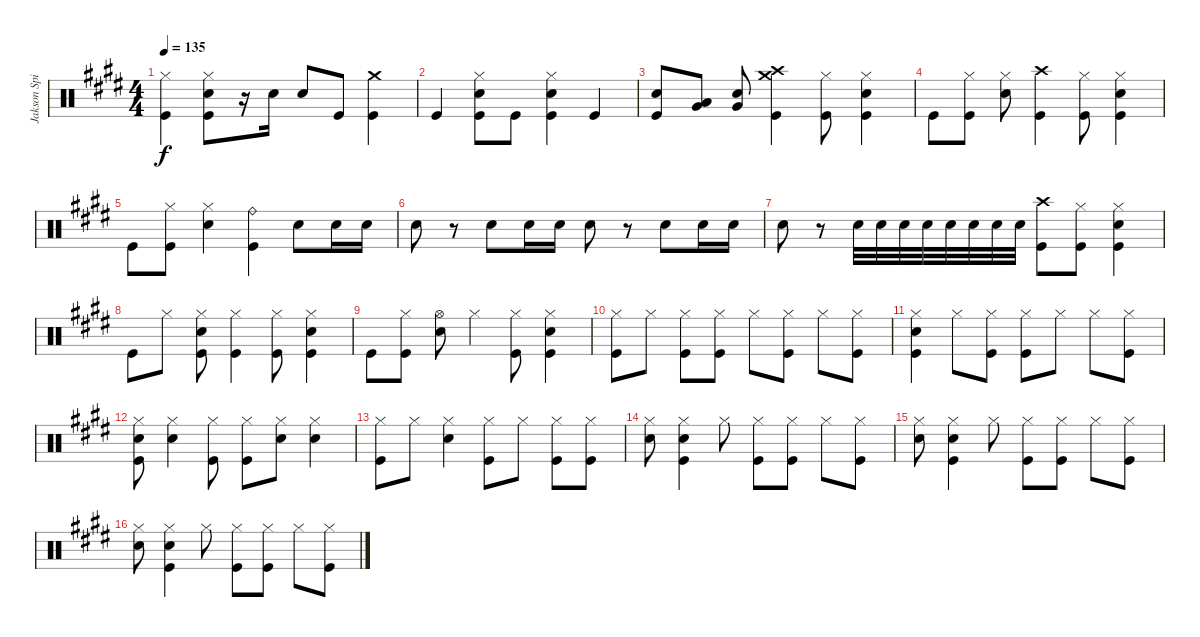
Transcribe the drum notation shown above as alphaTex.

\track ("Jakson Spires Drums" "Jakson Spi") {instrument percussion}
\staff {score}
\articulation defaults
\ts (4 4)
\tempo 135
\clef neutral
\ks e
("Hi-Hat (closed)" "Kick (hit)").4{dy f} ("Hi-Hat (closed)" "Snare (hit) 2" "Kick (hit)").8 r.16 "Snare (hit) 2".16 "Snare (hit) 2".8 "Kick (hit)".8 ("Crash medium (hit)" "Kick (hit)").4 |
"Kick (hit)".4 ("Hi-Hat (closed)" "Snare (hit) 2" "Kick (hit)").8 "Kick (hit)".8 ("Hi-Hat (closed)" "Snare (hit) 2" "Kick (hit)").4 "Kick (hit)".4 |
("Snare (hit) 2" "Kick (hit)").8 ("Low Tom (hit)" "Very Low Tom (hit)").8 ("Snare (hit) 2" "Very Low Tom (hit)").8 ("Crash high (hit)" "Crash medium (hit)" "Kick (hit)").4 ("Hi-Hat (closed)" "Kick (hit)").8 ("Hi-Hat (closed)" "Snare (hit) 2" "Kick (hit)").4 |
"Kick (hit)".8 ("Hi-Hat (closed)" "Kick (hit)").8 ("Hi-Hat (closed)" "Snare (hit) 2").8 ("Crash high (hit)" "Kick (hit)").4 ("Hi-Hat (closed)" "Kick (hit)").8 ("Hi-Hat (closed)" "Snare (hit) 2" "Kick (hit)").4 |
"Kick (hit)".8 ("Hi-Hat (closed)" "Kick (hit)").8 ("Hi-Hat (closed)" "Snare (hit) 2").4 ("Ride (bell)" "Kick (hit)").4 "Snare (hit) 2".8 "Snare (hit) 2".16 "Snare (hit) 2".16 |
"Snare (hit) 2".8 r.8 "Snare (hit) 2".8 "Snare (hit) 2".16 "Snare (hit) 2".16 "Snare (hit) 2".8 r.8 "Snare (hit) 2".8 "Snare (hit) 2".16 "Snare (hit) 2".16 |
"Snare (hit) 2".8 r.8 "Snare (hit) 2".32 "Snare (hit) 2".32 "Snare (hit) 2".32 "Snare (hit) 2".32 "Snare (hit) 2".32 "Snare (hit) 2".32 "Snare (hit) 2".32 "Snare (hit) 2".32 ("Crash high (hit)" "Kick (hit)").8 ("Hi-Hat (closed)" "Kick (hit)").8 ("Hi-Hat (closed)" "Snare (hit) 2" "Kick (hit)").4 |
"Kick (hit)".8 "Hi-Hat (closed)".8 ("Hi-Hat (closed)" "Snare (hit) 2" "Kick (hit)").8 ("Hi-Hat (closed)" "Kick (hit)").4 ("Hi-Hat (closed)" "Kick (hit)").8 ("Hi-Hat (closed)" "Snare (hit) 2" "Kick (hit)").4 |
"Kick (hit)".8 ("Hi-Hat (closed)" "Kick (hit)").8 ("Hi-Hat (open)" "Snare (hit) 2").8 "Hi-Hat (closed)".4 ("Hi-Hat (closed)" "Kick (hit)").8 ("Hi-Hat (closed)" "Snare (hit) 2" "Kick (hit)").4 |
("Hi-Hat (closed)" "Kick (hit)").8 "Hi-Hat (closed)".8 ("Hi-Hat (closed)" "Kick (hit)").8 ("Hi-Hat (closed)" "Kick (hit)").8 "Hi-Hat (closed)".8 ("Hi-Hat (closed)" "Kick (hit)").8 "Hi-Hat (closed)".8 ("Hi-Hat (closed)" "Kick (hit)").8 |
("Hi-Hat (closed)" "Snare (hit) 2" "Kick (hit)").4 "Hi-Hat (closed)".8 ("Hi-Hat (closed)" "Kick (hit)").8 ("Hi-Hat (closed)" "Kick (hit)").8 "Hi-Hat (closed)".8 "Hi-Hat (closed)".8 ("Hi-Hat (closed)" "Kick (hit)").8 |
("Hi-Hat (closed)" "Snare (hit) 2" "Kick (hit)").8 ("Hi-Hat (closed)" "Snare (hit) 2").4 ("Hi-Hat (closed)" "Kick (hit)").8 ("Hi-Hat (closed)" "Kick (hit)").8 ("Hi-Hat (closed)" "Snare (hit) 2").8 ("Hi-Hat (closed)" "Snare (hit) 2").4 |
("Hi-Hat (closed)" "Kick (hit)").8 "Hi-Hat (closed)".8 ("Hi-Hat (closed)" "Snare (hit) 2").4 ("Hi-Hat (closed)" "Kick (hit)").8 "Hi-Hat (closed)".8 ("Hi-Hat (closed)" "Kick (hit)").8 ("Hi-Hat (closed)" "Kick (hit)").8 |
("Hi-Hat (closed)" "Snare (hit) 2").8 ("Hi-Hat (closed)" "Snare (hit) 2" "Kick (hit)").4 "Hi-Hat (closed)".8 ("Hi-Hat (closed)" "Kick (hit)").8 ("Hi-Hat (closed)" "Kick (hit)").8 "Hi-Hat (closed)".8 ("Hi-Hat (closed)" "Kick (hit)").8 |
("Hi-Hat (closed)" "Snare (hit) 2").8 ("Hi-Hat (closed)" "Snare (hit) 2" "Kick (hit)").4 "Hi-Hat (closed)".8 ("Hi-Hat (closed)" "Kick (hit)").8 ("Hi-Hat (closed)" "Kick (hit)").8 "Hi-Hat (closed)".8 ("Hi-Hat (closed)" "Kick (hit)").8 |
("Hi-Hat (closed)" "Snare (hit) 2").8 ("Hi-Hat (closed)" "Snare (hit) 2" "Kick (hit)").4 "Hi-Hat (closed)".8 ("Hi-Hat (closed)" "Kick (hit)").8 ("Hi-Hat (closed)" "Kick (hit)").8 "Hi-Hat (closed)".8 ("Hi-Hat (closed)" "Kick (hit)").8
